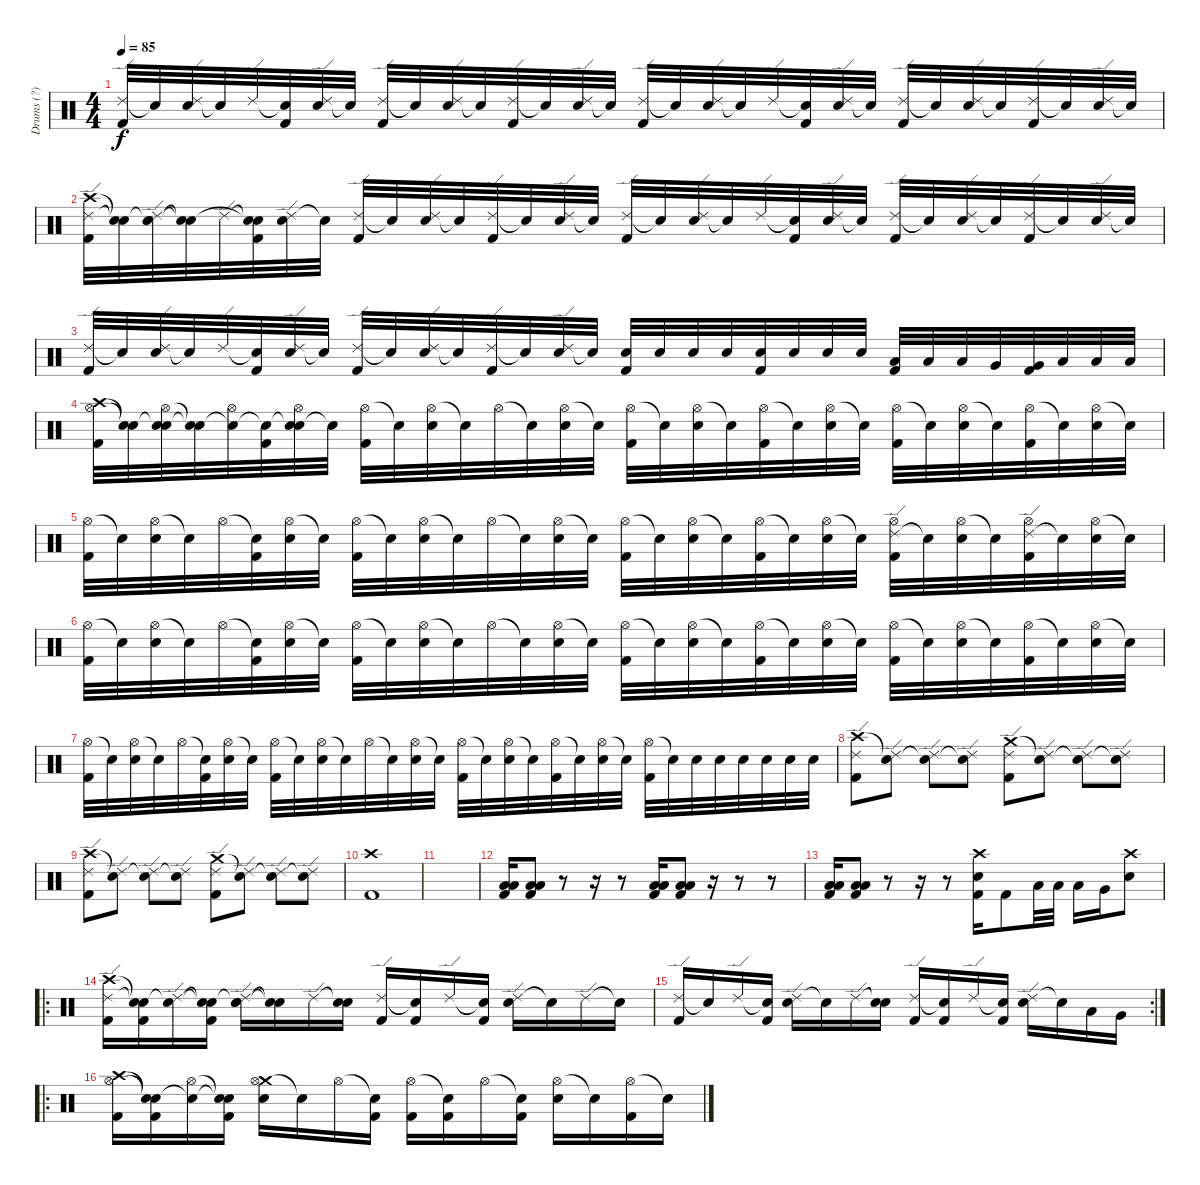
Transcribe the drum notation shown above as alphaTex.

\track ("Drums (?)" "Drums (?)") {instrument percussion}
\staff {score}
\articulation defaults
\ts (4 4)
\tempo 85
\clef neutral
\ks c
("Ride (edge) 2" "Kick (hit) 2").32{dy f volume 14} "Snare (hit)"{t}.32 ("Ride (edge) 2" "Electric Snare (hit)").32 "Snare (hit)"{t}.32 "Ride (edge) 2".32 ("Snare (hit)"{t} "Kick (hit) 2").32 ("Ride (edge) 2" "Electric Snare (hit)").32 "Snare (hit)"{t}.32 ("Ride (edge) 2" "Kick (hit) 2").32 "Snare (hit)"{t}.32 ("Ride (edge) 2" "Electric Snare (hit)").32 "Snare (hit)"{t}.32 ("Ride (edge) 2" "Kick (hit) 2").32 "Snare (hit)"{t}.32 ("Ride (edge) 2" "Electric Snare (hit)").32 "Snare (hit)"{t}.32 ("Ride (edge) 2" "Kick (hit) 2").32 "Snare (hit)"{t}.32 ("Ride (edge) 2" "Electric Snare (hit)").32 "Snare (hit)"{t}.32 "Ride (edge) 2".32 ("Snare (hit)"{t} "Kick (hit) 2").32 ("Ride (edge) 2" "Electric Snare (hit)").32 "Snare (hit)"{t}.32 ("Ride (edge) 2" "Kick (hit) 2").32 "Snare (hit)"{t}.32 ("Ride (edge) 2" "Electric Snare (hit)").32 "Snare (hit)"{t}.32 ("Ride (edge) 2" "Kick (hit) 2").32 "Snare (hit)"{t}.32 ("Ride (edge) 2" "Electric Snare (hit)").32 "Snare (hit)"{t}.32 |
("Crash high (hit)" "Ride (edge) 2" "Kick (hit) 2").32{volume 14} ("Snare (hit)"{t} "Snare (hit)"{t}).32 ("Snare (hit)"{t} "Ride (edge) 2" "Electric Snare (hit)").32 ("Snare (hit)"{t} "Snare (hit)"{t}).32 "Ride (edge) 2".32 ("Snare (hit)"{t} "Snare (hit)"{t} "Kick (hit) 2").32 ("Ride (edge) 2" "Electric Snare (hit)").32 "Snare (hit)"{t}.32 ("Ride (edge) 2" "Kick (hit) 2").32 "Snare (hit)"{t}.32 ("Ride (edge) 2" "Electric Snare (hit)").32 "Snare (hit)"{t}.32 ("Ride (edge) 2" "Kick (hit) 2").32 "Snare (hit)"{t}.32 ("Ride (edge) 2" "Electric Snare (hit)").32 "Snare (hit)"{t}.32 ("Ride (edge) 2" "Kick (hit) 2").32 "Snare (hit)"{t}.32 ("Ride (edge) 2" "Electric Snare (hit)").32 "Snare (hit)"{t}.32 "Ride (edge) 2".32 ("Snare (hit)"{t} "Kick (hit) 2").32 ("Ride (edge) 2" "Electric Snare (hit)").32 "Snare (hit)"{t}.32 ("Ride (edge) 2" "Kick (hit) 2").32 "Snare (hit)"{t}.32 ("Ride (edge) 2" "Electric Snare (hit)").32 "Snare (hit)"{t}.32 ("Ride (edge) 2" "Kick (hit) 2").32 "Snare (hit)"{t}.32 ("Ride (edge) 2" "Electric Snare (hit)").32 "Snare (hit)"{t}.32 |
("Ride (edge) 2" "Kick (hit) 2").32 "Snare (hit)"{t}.32 ("Ride (edge) 2" "Electric Snare (hit)").32 "Snare (hit)"{t}.32 "Ride (edge) 2".32 ("Snare (hit)"{t} "Kick (hit) 2").32 ("Ride (edge) 2" "Electric Snare (hit)").32 "Snare (hit)"{t}.32 ("Ride (edge) 2" "Kick (hit) 2").32 "Snare (hit)"{t}.32 ("Ride (edge) 2" "Electric Snare (hit)").32 "Snare (hit)"{t}.32 ("Ride (edge) 2" "Kick (hit) 2").32 "Snare (hit)"{t}.32 ("Ride (edge) 2" "Electric Snare (hit)").32 "Snare (hit)"{t}.32 ("Electric Snare (hit)" "Kick (hit) 2").32 "Electric Snare (hit)".32 "Electric Snare (hit)".32 "Electric Snare (hit)".32 ("Electric Snare (hit)" "Kick (hit) 2").32 "Electric Snare (hit)".32 "Electric Snare (hit)".32 "Electric Snare (hit)".32 ("Low Tom (hit)" "Kick (hit) 2").32 "Low Tom (hit)".32 "Low Tom (hit)".32 "Very Low Tom (hit)".32 ("Very Low Tom (hit)" "Kick (hit) 2").32 "Low Floor Tom (hit)".32 "Low Floor Tom (hit)".32 "Low Floor Tom (hit)".32 |
("Crash high (hit)" "Hi-Hat (open)" "Kick (hit) 2").32{volume 14} ("Snare (hit)"{t} "Snare (hit)"{t}).32 ("Snare (hit)"{t} "Hi-Hat (open)" "Electric Snare (hit)").32 ("Snare (hit)"{t} "Snare (hit)"{t}).32 ("Snare (hit)"{t} "Hi-Hat (open)").32 ("Snare (hit)"{t} "Kick (hit) 2").32 ("Snare (hit)"{t} "Hi-Hat (open)" "Electric Snare (hit)").32 "Snare (hit)"{t}.32 ("Hi-Hat (open)" "Kick (hit) 2").32 "Snare (hit)"{t}.32 ("Hi-Hat (open)" "Electric Snare (hit)").32 "Snare (hit)"{t}.32 "Hi-Hat (open)".32 "Snare (hit)"{t}.32 ("Hi-Hat (open)" "Electric Snare (hit)").32 "Snare (hit)"{t}.32 ("Hi-Hat (open)" "Kick (hit) 2").32 "Snare (hit)"{t}.32 ("Hi-Hat (open)" "Electric Snare (hit)").32 "Snare (hit)"{t}.32 ("Hi-Hat (open)" "Kick (hit) 2").32 "Snare (hit)"{t}.32 ("Hi-Hat (open)" "Electric Snare (hit)").32 "Snare (hit)"{t}.32 ("Hi-Hat (open)" "Kick (hit) 2").32 "Snare (hit)"{t}.32 ("Hi-Hat (open)" "Electric Snare (hit)").32 "Snare (hit)"{t}.32 ("Hi-Hat (open)" "Kick (hit) 2").32 "Snare (hit)"{t}.32 ("Hi-Hat (open)" "Electric Snare (hit)").32 "Snare (hit)"{t}.32 |
("Hi-Hat (open)" "Kick (hit) 2").32{volume 14} "Snare (hit)"{t}.32 ("Hi-Hat (open)" "Electric Snare (hit)").32 "Snare (hit)"{t}.32 "Hi-Hat (open)".32 ("Snare (hit)"{t} "Kick (hit) 2").32 ("Hi-Hat (open)" "Electric Snare (hit)").32 "Snare (hit)"{t}.32 ("Hi-Hat (open)" "Kick (hit) 2").32 "Snare (hit)"{t}.32 ("Hi-Hat (open)" "Electric Snare (hit)").32 "Snare (hit)"{t}.32 "Hi-Hat (open)".32 "Snare (hit)"{t}.32 ("Hi-Hat (open)" "Electric Snare (hit)").32 "Snare (hit)"{t}.32 ("Hi-Hat (open)" "Kick (hit) 2").32 "Snare (hit)"{t}.32 ("Hi-Hat (open)" "Electric Snare (hit)").32 "Snare (hit)"{t}.32 ("Hi-Hat (open)" "Kick (hit) 2").32 "Snare (hit)"{t}.32 ("Hi-Hat (open)" "Electric Snare (hit)").32 "Snare (hit)"{t}.32 ("Ride (edge) 2" "Hi-Hat (open)" "Kick (hit) 2").32 "Snare (hit)"{t}.32 ("Hi-Hat (open)" "Electric Snare (hit)").32 "Snare (hit)"{t}.32 ("Ride (edge) 2" "Hi-Hat (open)" "Kick (hit) 2").32 "Snare (hit)"{t}.32 ("Hi-Hat (open)" "Electric Snare (hit)").32 "Snare (hit)"{t}.32 |
("Hi-Hat (open)" "Kick (hit) 2").32{volume 14} "Snare (hit)"{t}.32 ("Hi-Hat (open)" "Electric Snare (hit)").32 "Snare (hit)"{t}.32 "Hi-Hat (open)".32 ("Snare (hit)"{t} "Kick (hit) 2").32 ("Hi-Hat (open)" "Electric Snare (hit)").32 "Snare (hit)"{t}.32 ("Hi-Hat (open)" "Kick (hit) 2").32 "Snare (hit)"{t}.32 ("Hi-Hat (open)" "Electric Snare (hit)").32 "Snare (hit)"{t}.32 "Hi-Hat (open)".32 "Snare (hit)"{t}.32 ("Hi-Hat (open)" "Electric Snare (hit)").32 "Snare (hit)"{t}.32 ("Hi-Hat (open)" "Kick (hit) 2").32 "Snare (hit)"{t}.32 ("Hi-Hat (open)" "Electric Snare (hit)").32 "Snare (hit)"{t}.32 ("Hi-Hat (open)" "Kick (hit) 2").32 "Snare (hit)"{t}.32 ("Hi-Hat (open)" "Electric Snare (hit)").32 "Snare (hit)"{t}.32 ("Hi-Hat (open)" "Kick (hit) 2").32 "Snare (hit)"{t}.32 ("Hi-Hat (open)" "Electric Snare (hit)").32 "Snare (hit)"{t}.32 ("Hi-Hat (open)" "Kick (hit) 2").32 "Snare (hit)"{t}.32 ("Hi-Hat (open)" "Electric Snare (hit)").32 "Snare (hit)"{t}.32 |
("Hi-Hat (open)" "Kick (hit) 2").32{volume 14} "Snare (hit)"{t}.32 ("Hi-Hat (open)" "Electric Snare (hit)").32 "Snare (hit)"{t}.32 "Hi-Hat (open)".32 ("Snare (hit)"{t} "Kick (hit) 2").32 ("Hi-Hat (open)" "Electric Snare (hit)").32 "Snare (hit)"{t}.32 ("Hi-Hat (open)" "Kick (hit) 2").32 "Snare (hit)"{t}.32 ("Hi-Hat (open)" "Electric Snare (hit)").32 "Snare (hit)"{t}.32 "Hi-Hat (open)".32 "Snare (hit)"{t}.32 ("Hi-Hat (open)" "Electric Snare (hit)").32 "Snare (hit)"{t}.32 ("Hi-Hat (open)" "Kick (hit) 2").32 "Snare (hit)"{t}.32 ("Hi-Hat (open)" "Electric Snare (hit)").32 "Snare (hit)"{t}.32 ("Hi-Hat (open)" "Kick (hit) 2").32 "Snare (hit)"{t}.32 ("Hi-Hat (open)" "Electric Snare (hit)").32 "Snare (hit)"{t}.32 ("Hi-Hat (open)" "Kick (hit) 2").32 "Snare (hit)"{t}.32 "Electric Snare (hit)".32 "Electric Snare (hit)".32 "Electric Snare (hit)".32 "Electric Snare (hit)".32 "Electric Snare (hit)".32 "Electric Snare (hit)".32 |
("Crash high (hit)" "Ride (edge) 2" "Kick (hit) 2").8 ("Snare (hit)"{t} "Ride (edge) 2").8 ("Snare (hit)"{t} "Ride (edge) 2").8 ("Snare (hit)"{t} "Ride (edge) 2").8 ("Crash medium (hit)" "Ride (edge) 2" "Kick (hit) 2").8 ("Snare (hit)"{t} "Ride (edge) 2").8 ("Snare (hit)"{t} "Ride (edge) 2").8 ("Snare (hit)"{t} "Ride (edge) 2").8 |
("Crash high (hit)" "Ride (edge) 2" "Kick (hit) 2").8 ("Snare (hit)"{t} "Ride (edge) 2").8 ("Snare (hit)"{t} "Ride (edge) 2").8 ("Snare (hit)"{t} "Ride (edge) 2").8 ("Crash medium (hit)" "Ride (edge) 2" "Kick (hit) 2").8 ("Snare (hit)"{t} "Ride (edge) 2").8 ("Snare (hit)"{t} "Ride (edge) 2").8 ("Snare (hit)"{t} "Ride (edge) 2").8 |
("Crash high (hit)" "Kick (hit) 2").1 |
|
("Low Tom (hit)" "Low Floor Tom (hit)" "Kick (hit) 2").16 ("Low Tom (hit)" "Low Floor Tom (hit)" "Kick (hit) 2").8 r.8 r.16 r.8 ("Low Tom (hit)" "Low Floor Tom (hit)" "Kick (hit) 2").16 ("Low Tom (hit)" "Low Floor Tom (hit)" "Kick (hit) 2").8 r.16 r.8 r.8 |
("Low Tom (hit)" "Low Floor Tom (hit)" "Kick (hit) 2").16 ("Low Tom (hit)" "Low Floor Tom (hit)" "Kick (hit) 2").8 r.8 r.16 r.8 ("Crash high (hit)" "Electric Snare (hit)" "Kick (hit) 2").16 "Kick (hit) 2".8 "Low Tom (hit)".32 "Low Tom (hit)".32 "Low Tom (hit)".16 "Very Low Tom (hit)".16 ("Crash high (hit)" "Electric Snare (hit)").8 |
\ro
("Crash high (hit)" "Ride (edge) 2" "Kick (hit) 2").16 ("Snare (hit)"{t} "Snare (hit)"{t} "Kick (hit) 2").16 ("Snare (hit)"{t} "Ride (edge) 2").16 ("Snare (hit)"{t} "Snare (hit)"{t} "Kick (hit) 2").16 ("Snare (hit)"{t} "Ride (edge) 2" "Electric Snare (hit)").16 ("Snare (hit)"{t} "Snare (hit)"{t}).16 "Ride (edge) 2".16 ("Snare (hit)"{t} "Electric Snare (hit)").16 ("Ride (edge) 2" "Kick (hit) 2").16 ("Snare (hit)"{t} "Kick (hit) 2").16 "Ride (edge) 2".16 ("Snare (hit)"{t} "Kick (hit) 2").16 ("Ride (edge) 2" "Electric Snare (hit)").16 "Snare (hit)"{t}.16 "Ride (edge) 2".16 "Snare (hit)"{t}.16 |
\rc 2
("Ride (edge) 2" "Kick (hit) 2").16 "Snare (hit)"{t}.16 "Ride (edge) 2".16 ("Snare (hit)"{t} "Kick (hit) 2").16 ("Ride (edge) 2" "Electric Snare (hit)").16 "Snare (hit)"{t}.16 "Ride (edge) 2".16 ("Snare (hit)"{t} "Electric Snare (hit)").16 ("Ride (edge) 2" "Kick (hit) 2").16 ("Snare (hit)"{t} "Kick (hit) 2").16 "Ride (edge) 2".16 ("Snare (hit)"{t} "Kick (hit) 2").16 ("Ride (edge) 2" "Electric Snare (hit)").16 "Snare (hit)"{t}.16 "Low Tom (hit)".16 "Very Low Tom (hit)".16 |
\ro
("Crash high (hit)" "Hi-Hat (open)" "Kick (hit) 2").16 ("Snare (hit)"{t} "Snare (hit)"{t} "Kick (hit) 2").16 ("Snare (hit)"{t} "Hi-Hat (open)").16 ("Snare (hit)"{t} "Snare (hit)"{t} "Kick (hit) 2").16 ("Crash medium (hit)" "Hi-Hat (open)" "Electric Snare (hit)").16 "Snare (hit)"{t}.16 "Hi-Hat (open)".16 ("Snare (hit)"{t} "Kick (hit) 2").16 ("Hi-Hat (open)" "Kick (hit) 2").16 ("Snare (hit)"{t} "Kick (hit) 2").16 "Hi-Hat (open)".16 ("Snare (hit)"{t} "Kick (hit) 2").16 ("Hi-Hat (open)" "Electric Snare (hit)").16 "Snare (hit)"{t}.16 ("Hi-Hat (open)" "Kick (hit) 2").16 "Snare (hit)"{t}.16
